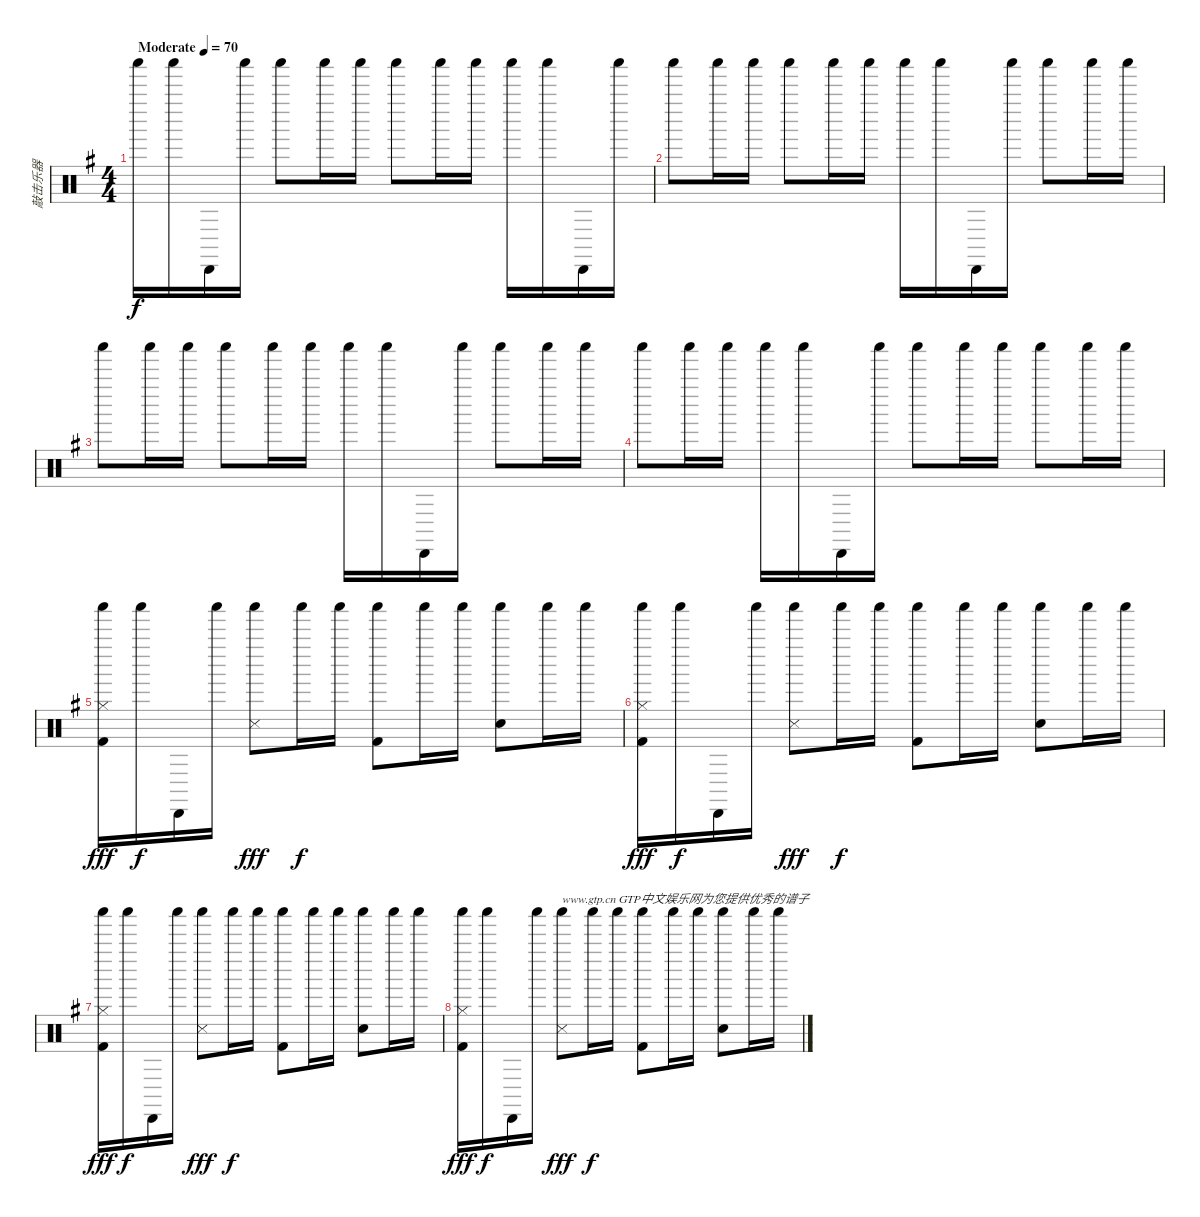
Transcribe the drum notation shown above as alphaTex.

\track ("敲击乐器" "敲击乐器") {instrument percussion}
\staff {score}
\articulation defaults
\ts (4 4)
\tempo (70 "Moderate")
\clef neutral
\ks g "Shaker (hit)".16{dy f} "Shaker (hit)".16 "Cabasa (hit)".16 "Shaker (hit)".16 "Shaker (hit)".8 "Shaker (hit)".16 "Shaker (hit)".16 "Shaker (hit)".8 "Shaker (hit)".16 "Shaker (hit)".16 "Shaker (hit)".16 "Shaker (hit)".16 "Cabasa (hit)".16 "Shaker (hit)".16
|
"Shaker (hit)".8 "Shaker (hit)".16 "Shaker (hit)".16 "Shaker (hit)".8 "Shaker (hit)".16 "Shaker (hit)".16 "Shaker (hit)".16 "Shaker (hit)".16 "Cabasa (hit)".16 "Shaker (hit)".16 "Shaker (hit)".8 "Shaker (hit)".16 "Shaker (hit)".16 |
"Shaker (hit)".8 "Shaker (hit)".16 "Shaker (hit)".16 "Shaker (hit)".8 "Shaker (hit)".16 "Shaker (hit)".16 "Shaker (hit)".16 "Shaker (hit)".16 "Cabasa (hit)".16 "Shaker (hit)".16 "Shaker (hit)".8 "Shaker (hit)".16 "Shaker (hit)".16 |
"Shaker (hit)".8 "Shaker (hit)".16 "Shaker (hit)".16 "Shaker (hit)".16 "Shaker (hit)".16 "Cabasa (hit)".16 "Shaker (hit)".16 "Shaker (hit)".8 "Shaker (hit)".16 "Shaker (hit)".16 "Shaker (hit)".8 "Shaker (hit)".16 "Shaker (hit)".16 |
("Shaker (hit)" "Hi-Hat (closed)" "Kick (hit) 2").16{dy fff} "Shaker (hit)".16{dy f} "Cabasa (hit)".16 "Shaker (hit)".16 ("Shaker (hit)" "Snare (side stick) 3").8{dy fff} "Shaker (hit)".16{dy f} "Shaker (hit)".16 ("Shaker (hit)" "Kick (hit) 2").8 "Shaker (hit)".16 "Shaker (hit)".16 ("Shaker (hit)" "Snare (hit) 2").8 "Shaker (hit)".16 "Shaker (hit)".16 |
("Shaker (hit)" "Hi-Hat (closed)" "Kick (hit) 2").16{dy fff} "Shaker (hit)".16{dy f} "Cabasa (hit)".16 "Shaker (hit)".16 ("Shaker (hit)" "Snare (side stick) 3").8{dy fff} "Shaker (hit)".16{dy f} "Shaker (hit)".16 ("Shaker (hit)" "Kick (hit) 2").8 "Shaker (hit)".16 "Shaker (hit)".16 ("Shaker (hit)" "Snare (hit) 2").8 "Shaker (hit)".16 "Shaker (hit)".16 |
("Shaker (hit)" "Hi-Hat (closed)" "Kick (hit) 2").16{dy fff} "Shaker (hit)".16{dy f} "Cabasa (hit)".16 "Shaker (hit)".16 ("Shaker (hit)" "Snare (side stick) 3").8{dy fff} "Shaker (hit)".16{dy f} "Shaker (hit)".16 ("Shaker (hit)" "Kick (hit) 2").8 "Shaker (hit)".16 "Shaker (hit)".16 ("Shaker (hit)" "Snare (hit) 2").8 "Shaker (hit)".16 "Shaker (hit)".16 |
("Shaker (hit)" "Hi-Hat (closed)" "Kick (hit) 2").16{dy fff} "Shaker (hit)".16{dy f} "Cabasa (hit)".16 "Shaker (hit)".16 ("Shaker (hit)" "Snare (side stick) 3").8{txt "www.gtp.cn GTP中文娱乐网为您提供优秀的谱子" dy fff} "Shaker (hit)".16{dy f} "Shaker (hit)".16 ("Shaker (hit)" "Kick (hit) 2").8 "Shaker (hit)".16 "Shaker (hit)".16 ("Shaker (hit)" "Snare (hit) 2").8 "Shaker (hit)".16 "Shaker (hit)".16
